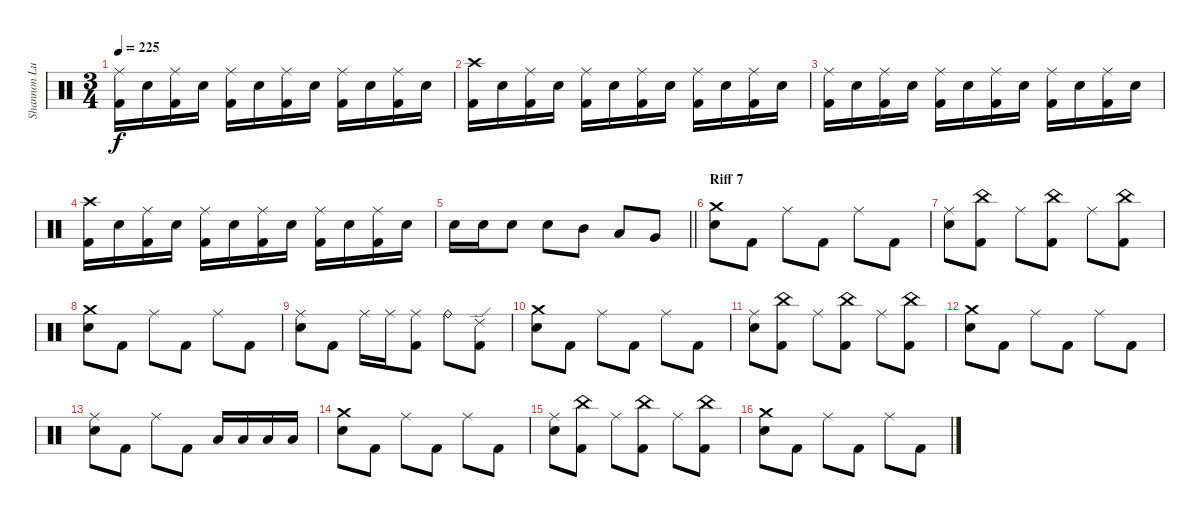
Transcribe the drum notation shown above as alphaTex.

\track ("Shannon Lucas" "Shannon Lu") {instrument percussion}
\staff {score}
\articulation defaults
\ts (3 4)
\tempo 225
\clef neutral
\ks c
("Ride (middle)" "Kick (hit) 2").16{dy f} "Electric Snare (hit)".16 ("Ride (middle)" "Kick (hit) 2").16 "Electric Snare (hit)".16 ("Ride (middle)" "Kick (hit) 2").16 "Electric Snare (hit)".16 ("Ride (middle)" "Kick (hit) 2").16 "Electric Snare (hit)".16 ("Ride (middle)" "Kick (hit) 2").16 "Electric Snare (hit)".16 ("Ride (middle)" "Kick (hit) 2").16 "Electric Snare (hit)".16 |
("Crash high (hit)" "Kick (hit) 2").16 "Electric Snare (hit)".16 ("Ride (middle)" "Kick (hit) 2").16 "Electric Snare (hit)".16 ("Ride (middle)" "Kick (hit) 2").16 "Electric Snare (hit)".16 ("Ride (middle)" "Kick (hit) 2").16 "Electric Snare (hit)".16 ("Ride (middle)" "Kick (hit) 2").16 "Electric Snare (hit)".16 ("Ride (middle)" "Kick (hit) 2").16 "Electric Snare (hit)".16 |
("Ride (middle)" "Kick (hit) 2").16 "Electric Snare (hit)".16 ("Ride (middle)" "Kick (hit) 2").16 "Electric Snare (hit)".16 ("Ride (middle)" "Kick (hit) 2").16 "Electric Snare (hit)".16 ("Ride (middle)" "Kick (hit) 2").16 "Electric Snare (hit)".16 ("Ride (middle)" "Kick (hit) 2").16 "Electric Snare (hit)".16 ("Ride (middle)" "Kick (hit) 2").16 "Electric Snare (hit)".16 |
("Crash high (hit)" "Kick (hit) 2").16 "Electric Snare (hit)".16 ("Ride (middle)" "Kick (hit) 2").16 "Electric Snare (hit)".16 ("Ride (middle)" "Kick (hit) 2").16 "Electric Snare (hit)".16 ("Ride (middle)" "Kick (hit) 2").16 "Electric Snare (hit)".16 ("Ride (middle)" "Kick (hit) 2").16 "Electric Snare (hit)".16 ("Ride (middle)" "Kick (hit) 2").16 "Electric Snare (hit)".16 |
\barLineRight lightlight "Electric Snare (hit)".16 "Electric Snare (hit)".16 "Electric Snare (hit)".8 "Electric Snare (hit)".8 "Mid Tom (hit)".8 "Low Tom (hit)".8 "Very Low Tom (hit)".8
|
\section ("" "Riff 7")
("Crash medium (hit)" "Electric Snare (hit)").8 "Kick (hit) 2".8 "Ride (middle)".8 "Kick (hit) 2".8 "Ride (middle)".8 "Kick (hit) 2".8 |
("Ride (middle)" "Electric Snare (hit)").8 ("China (hit)" "Kick (hit) 2").8 "Ride (middle)".8 ("China (hit)" "Kick (hit) 2").8 "Ride (middle)".8 ("China (hit)" "Kick (hit) 2").8 |
("Crash medium (hit)" "Electric Snare (hit)").8 "Kick (hit) 2".8 "Ride (middle)".8 "Kick (hit) 2".8 "Ride (middle)".8 "Kick (hit) 2".8 |
("Ride (middle)" "Electric Snare (hit)").8 "Kick (hit) 2".8 "Ride (middle)".16 "Ride (middle)".16 ("Ride (middle)" "Kick (hit) 2").8 "Ride (bell)".8 ("Ride (edge) 2" "Kick (hit) 2").8 |
("Crash medium (hit)" "Electric Snare (hit)").8 "Kick (hit) 2".8 "Ride (middle)".8 "Kick (hit) 2".8 "Ride (middle)".8 "Kick (hit) 2".8 |
("Ride (middle)" "Electric Snare (hit)").8 ("China (hit)" "Kick (hit) 2").8 "Ride (middle)".8 ("China (hit)" "Kick (hit) 2").8 "Ride (middle)".8 ("China (hit)" "Kick (hit) 2").8 |
("Crash medium (hit)" "Electric Snare (hit)").8 "Kick (hit) 2".8 "Ride (middle)".8 "Kick (hit) 2".8 "Ride (middle)".8 "Kick (hit) 2".8 |
("Ride (middle)" "Electric Snare (hit)").8 "Kick (hit) 2".8 "Ride (middle)".8 "Kick (hit) 2".8 "Low Tom (hit)".16 "Low Tom (hit)".16 "Low Tom (hit)".16 "Low Tom (hit)".16 |
("Crash medium (hit)" "Electric Snare (hit)").8 "Kick (hit) 2".8 "Ride (middle)".8 "Kick (hit) 2".8 "Ride (middle)".8 "Kick (hit) 2".8 |
("Ride (middle)" "Electric Snare (hit)").8 ("China (hit)" "Kick (hit) 2").8 "Ride (middle)".8 ("China (hit)" "Kick (hit) 2").8 "Ride (middle)".8 ("China (hit)" "Kick (hit) 2").8 |
("Crash medium (hit)" "Electric Snare (hit)").8 "Kick (hit) 2".8 "Ride (middle)".8 "Kick (hit) 2".8 "Ride (middle)".8 "Kick (hit) 2".8
